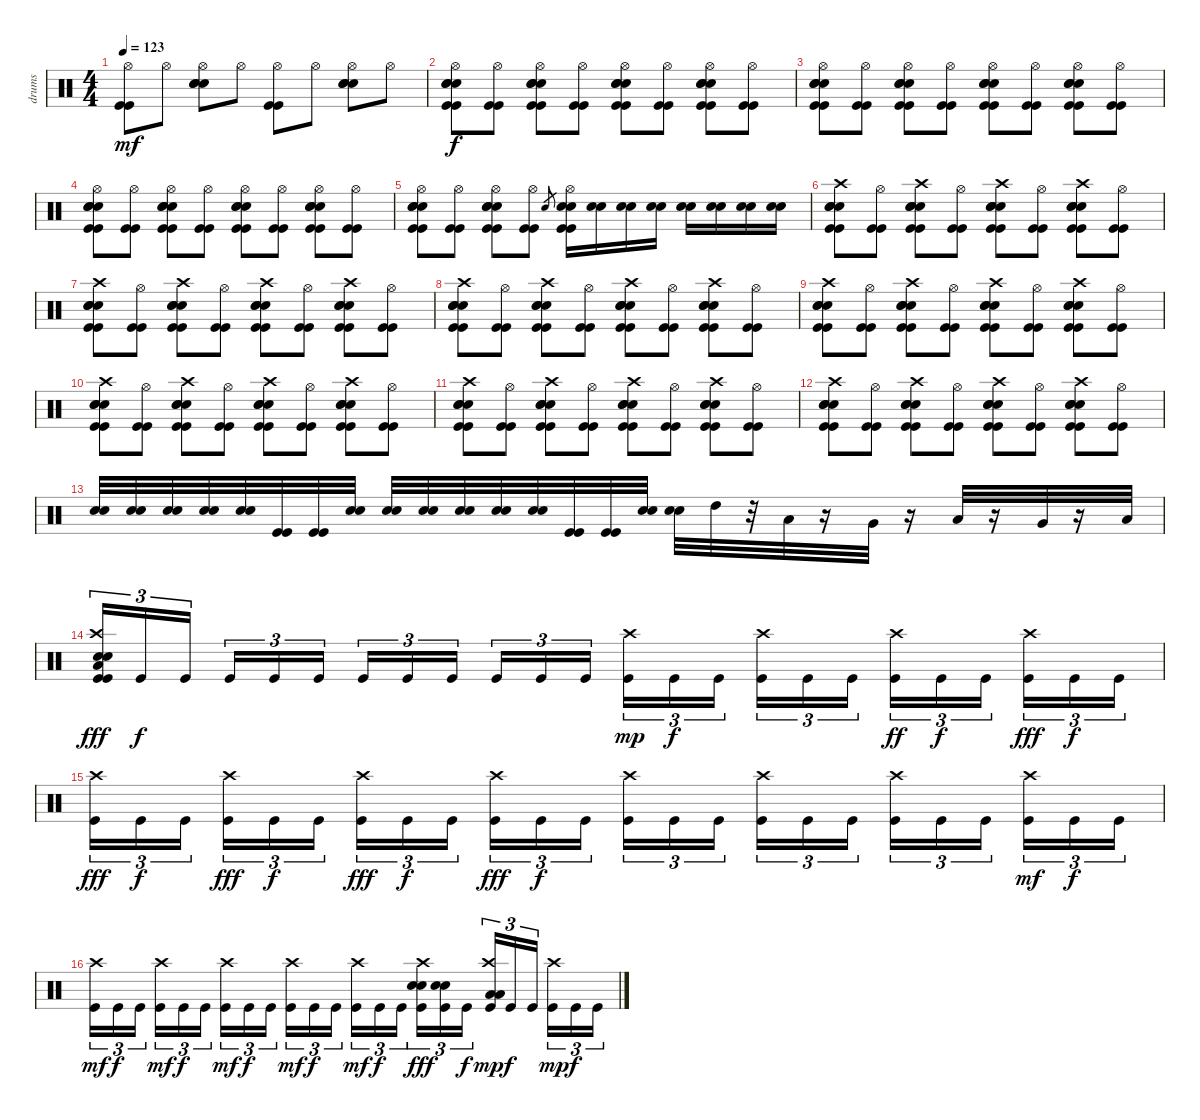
\track ("drums" "drums") {instrument percussion}
\staff {score}
\articulation defaults
\ts (4 4)
\tempo 123
\clef neutral
\ks c
("Hi-Hat (open)" "Kick (hit)" "Kick (hit)").8{dy mf} "Hi-Hat (open)".8 ("Hi-Hat (open)" "Snare (hit) 2" "Electric Snare (hit)" "Electric Snare (hit)").8 "Hi-Hat (open)".8 ("Hi-Hat (open)" "Kick (hit)" "Kick (hit)").8 "Hi-Hat (open)".8 ("Hi-Hat (open)" "Snare (hit) 2" "Electric Snare (hit)" "Electric Snare (hit)").8 "Hi-Hat (open)".8 |
("Hi-Hat (open)" "Snare (hit) 2" "Electric Snare (hit)" "Electric Snare (hit)" "Kick (hit)" "Kick (hit)").8{dy f} ("Hi-Hat (open)" "Kick (hit)" "Kick (hit)").8 ("Hi-Hat (open)" "Snare (hit) 2" "Electric Snare (hit)" "Electric Snare (hit)" "Kick (hit)" "Kick (hit)").8 ("Hi-Hat (open)" "Kick (hit)" "Kick (hit)").8 ("Hi-Hat (open)" "Snare (hit) 2" "Electric Snare (hit)" "Electric Snare (hit)" "Kick (hit)" "Kick (hit)").8 ("Hi-Hat (open)" "Kick (hit)" "Kick (hit)").8 ("Hi-Hat (open)" "Snare (hit) 2" "Electric Snare (hit)" "Electric Snare (hit)" "Kick (hit)" "Kick (hit)").8 ("Hi-Hat (open)" "Kick (hit)" "Kick (hit)").8 |
("Hi-Hat (open)" "Electric Snare (hit)" "Electric Snare (hit)" "Electric Snare (hit)" "Kick (hit)" "Kick (hit)").8 ("Hi-Hat (open)" "Kick (hit)" "Kick (hit)").8 ("Hi-Hat (open)" "Electric Snare (hit)" "Electric Snare (hit)" "Electric Snare (hit)" "Kick (hit)" "Kick (hit)").8 ("Hi-Hat (open)" "Kick (hit)" "Kick (hit)").8 ("Hi-Hat (open)" "Electric Snare (hit)" "Electric Snare (hit)" "Electric Snare (hit)" "Kick (hit)" "Kick (hit)").8 ("Hi-Hat (open)" "Kick (hit)" "Kick (hit)").8 ("Hi-Hat (open)" "Electric Snare (hit)" "Electric Snare (hit)" "Electric Snare (hit)" "Kick (hit)" "Kick (hit)").8 ("Hi-Hat (open)" "Kick (hit)" "Kick (hit)").8 |
("Hi-Hat (open)" "Electric Snare (hit)" "Electric Snare (hit)" "Electric Snare (hit)" "Kick (hit)" "Kick (hit)").8 ("Hi-Hat (open)" "Kick (hit)" "Kick (hit)").8 ("Hi-Hat (open)" "Electric Snare (hit)" "Electric Snare (hit)" "Electric Snare (hit)" "Kick (hit)" "Kick (hit)").8 ("Hi-Hat (open)" "Kick (hit)" "Kick (hit)").8 ("Hi-Hat (open)" "Electric Snare (hit)" "Electric Snare (hit)" "Electric Snare (hit)" "Kick (hit)" "Kick (hit)").8 ("Hi-Hat (open)" "Kick (hit)" "Kick (hit)").8 ("Hi-Hat (open)" "Electric Snare (hit)" "Electric Snare (hit)" "Electric Snare (hit)" "Kick (hit)" "Kick (hit)").8 ("Hi-Hat (open)" "Kick (hit)" "Kick (hit)").8 |
("Hi-Hat (open)" "Electric Snare (hit)" "Electric Snare (hit)" "Electric Snare (hit)" "Kick (hit)" "Kick (hit)").8 ("Hi-Hat (open)" "Kick (hit)" "Kick (hit)").8 ("Hi-Hat (open)" "Electric Snare (hit)" "Electric Snare (hit)" "Electric Snare (hit)" "Kick (hit)" "Kick (hit)").8 ("Hi-Hat (open)" "Kick (hit)" "Kick (hit)").8 "Snare (hit) 2".8{gr} ("Hi-Hat (open)" "Snare (hit) 2" "Snare (hit) 2" "Kick (hit)" "Kick (hit)").16 ("Snare (hit) 2" "Snare (hit) 2").16 ("Snare (hit) 2" "Snare (hit) 2").16 ("Snare (hit) 2" "Snare (hit) 2").16 ("Snare (hit) 2" "Snare (hit) 2").16 ("Snare (hit) 2" "Snare (hit) 2").16 ("Snare (hit) 2" "Snare (hit) 2").16 ("Snare (hit) 2" "Snare (hit) 2").16 |
("Crash high (hit)" "Snare (hit) 2" "Electric Snare (hit)" "Electric Snare (hit)" "Kick (hit)" "Kick (hit)").8 ("Hi-Hat (open)" "Kick (hit)" "Kick (hit)").8 ("Crash high (hit)" "Snare (hit) 2" "Electric Snare (hit)" "Electric Snare (hit)" "Kick (hit)" "Kick (hit)").8 ("Hi-Hat (open)" "Kick (hit)" "Kick (hit)").8 ("Crash high (hit)" "Snare (hit) 2" "Electric Snare (hit)" "Electric Snare (hit)" "Kick (hit)" "Kick (hit)").8 ("Hi-Hat (open)" "Kick (hit)" "Kick (hit)").8 ("Crash high (hit)" "Snare (hit) 2" "Electric Snare (hit)" "Electric Snare (hit)" "Kick (hit)" "Kick (hit)").8 ("Hi-Hat (open)" "Kick (hit)" "Kick (hit)").8 |
("Crash high (hit)" "Snare (hit) 2" "Electric Snare (hit)" "Electric Snare (hit)" "Kick (hit)" "Kick (hit)").8 ("Hi-Hat (open)" "Kick (hit)" "Kick (hit)").8 ("Crash high (hit)" "Snare (hit) 2" "Electric Snare (hit)" "Electric Snare (hit)" "Kick (hit)" "Kick (hit)").8 ("Hi-Hat (open)" "Kick (hit)" "Kick (hit)").8 ("Crash high (hit)" "Snare (hit) 2" "Electric Snare (hit)" "Electric Snare (hit)" "Kick (hit)" "Kick (hit)").8 ("Hi-Hat (open)" "Kick (hit)" "Kick (hit)").8 ("Crash high (hit)" "Snare (hit) 2" "Electric Snare (hit)" "Electric Snare (hit)" "Kick (hit)" "Kick (hit)").8 ("Hi-Hat (open)" "Kick (hit)" "Kick (hit)").8 |
("Crash high (hit)" "Snare (hit) 2" "Electric Snare (hit)" "Electric Snare (hit)" "Kick (hit)" "Kick (hit)").8 ("Hi-Hat (open)" "Kick (hit)" "Kick (hit)").8 ("Crash high (hit)" "Snare (hit) 2" "Electric Snare (hit)" "Electric Snare (hit)" "Kick (hit)" "Kick (hit)").8 ("Hi-Hat (open)" "Kick (hit)" "Kick (hit)").8 ("Crash high (hit)" "Snare (hit) 2" "Electric Snare (hit)" "Electric Snare (hit)" "Kick (hit)" "Kick (hit)").8 ("Hi-Hat (open)" "Kick (hit)" "Kick (hit)").8 ("Crash high (hit)" "Snare (hit) 2" "Electric Snare (hit)" "Electric Snare (hit)" "Kick (hit)" "Kick (hit)").8 ("Hi-Hat (open)" "Kick (hit)" "Kick (hit)").8 |
("Crash high (hit)" "Snare (hit) 2" "Electric Snare (hit)" "Electric Snare (hit)" "Kick (hit)" "Kick (hit)").8 ("Hi-Hat (open)" "Kick (hit)" "Kick (hit)").8 ("Crash high (hit)" "Snare (hit) 2" "Electric Snare (hit)" "Electric Snare (hit)" "Kick (hit)" "Kick (hit)").8 ("Hi-Hat (open)" "Kick (hit)" "Kick (hit)").8 ("Crash high (hit)" "Snare (hit) 2" "Electric Snare (hit)" "Electric Snare (hit)" "Kick (hit)" "Kick (hit)").8 ("Hi-Hat (open)" "Kick (hit)" "Kick (hit)").8 ("Crash high (hit)" "Snare (hit) 2" "Electric Snare (hit)" "Electric Snare (hit)" "Kick (hit)" "Kick (hit)").8 ("Hi-Hat (open)" "Kick (hit)" "Kick (hit)").8 |
("Crash high (hit)" "Snare (hit) 2" "Electric Snare (hit)" "Electric Snare (hit)" "Kick (hit)" "Kick (hit)").8 ("Hi-Hat (open)" "Kick (hit)" "Kick (hit)").8 ("Crash high (hit)" "Snare (hit) 2" "Electric Snare (hit)" "Electric Snare (hit)" "Kick (hit)" "Kick (hit)").8 ("Hi-Hat (open)" "Kick (hit)" "Kick (hit)").8 ("Crash high (hit)" "Snare (hit) 2" "Electric Snare (hit)" "Electric Snare (hit)" "Kick (hit)" "Kick (hit)").8 ("Hi-Hat (open)" "Kick (hit)" "Kick (hit)").8 ("Crash high (hit)" "Snare (hit) 2" "Electric Snare (hit)" "Electric Snare (hit)" "Kick (hit)" "Kick (hit)").8 ("Hi-Hat (open)" "Kick (hit)" "Kick (hit)").8 |
("Crash high (hit)" "Snare (hit) 2" "Electric Snare (hit)" "Electric Snare (hit)" "Kick (hit)" "Kick (hit)").8 ("Hi-Hat (open)" "Kick (hit)" "Kick (hit)").8 ("Crash high (hit)" "Snare (hit) 2" "Electric Snare (hit)" "Electric Snare (hit)" "Kick (hit)" "Kick (hit)").8 ("Hi-Hat (open)" "Kick (hit)" "Kick (hit)").8 ("Crash high (hit)" "Snare (hit) 2" "Electric Snare (hit)" "Electric Snare (hit)" "Kick (hit)" "Kick (hit)").8 ("Hi-Hat (open)" "Kick (hit)" "Kick (hit)").8 ("Crash high (hit)" "Snare (hit) 2" "Electric Snare (hit)" "Electric Snare (hit)" "Kick (hit)" "Kick (hit)").8 ("Hi-Hat (open)" "Kick (hit)" "Kick (hit)").8 |
("Crash high (hit)" "Snare (hit) 2" "Electric Snare (hit)" "Electric Snare (hit)" "Kick (hit)" "Kick (hit)").8 ("Hi-Hat (open)" "Kick (hit)" "Kick (hit)").8 ("Crash high (hit)" "Snare (hit) 2" "Electric Snare (hit)" "Electric Snare (hit)" "Kick (hit)" "Kick (hit)").8 ("Hi-Hat (open)" "Kick (hit)" "Kick (hit)").8 ("Crash high (hit)" "Snare (hit) 2" "Electric Snare (hit)" "Electric Snare (hit)" "Kick (hit)" "Kick (hit)").8 ("Hi-Hat (open)" "Kick (hit)" "Kick (hit)").8 ("Crash high (hit)" "Snare (hit) 2" "Electric Snare (hit)" "Electric Snare (hit)" "Kick (hit)" "Kick (hit)").8 ("Hi-Hat (open)" "Kick (hit)" "Kick (hit)").8 |
("Snare (hit) 2" "Snare (hit) 2").32 ("Snare (hit) 2" "Snare (hit) 2").32 ("Snare (hit) 2" "Snare (hit) 2").32 ("Snare (hit) 2" "Snare (hit) 2").32 ("Snare (hit) 2" "Snare (hit) 2").32 ("Kick (hit)" "Kick (hit)").32 ("Kick (hit)" "Kick (hit)").32 ("Snare (hit) 2" "Snare (hit) 2").32 ("Snare (hit) 2" "Snare (hit) 2").32 ("Snare (hit) 2" "Snare (hit) 2").32 ("Snare (hit) 2" "Snare (hit) 2").32 ("Snare (hit) 2" "Snare (hit) 2").32 ("Snare (hit) 2" "Snare (hit) 2").32 ("Kick (hit)" "Kick (hit)").32 ("Kick (hit)" "Kick (hit)").32 ("Snare (hit) 2" "Snare (hit) 2").32 ("Snare (hit) 2" "Snare (hit) 2").32 "High Tom (hit)".32 r.32 "Low Tom (hit)".32 r.16 "Very Low Tom (hit)".32 r.16 "Low Tom (hit)".32 r.16 "Very Low Tom (hit)".32 r.16 "Low Floor Tom (hit)".32 |
("Crash high (hit)" "Snare (hit) 2" "Snare (hit) 2" "Low Floor Tom (hit)" "Kick (hit)" "Kick (hit)").16{tu (3 2) dy fff} "Kick (hit)".16{tu (3 2) dy f} "Kick (hit)".16{tu (3 2)} "Kick (hit)".16{tu (3 2)} "Kick (hit)".16{tu (3 2)} "Kick (hit)".16{tu (3 2)} "Kick (hit)".16{tu (3 2)} "Kick (hit)".16{tu (3 2)} "Kick (hit)".16{tu (3 2)} "Kick (hit)".16{tu (3 2)} "Kick (hit)".16{tu (3 2)} "Kick (hit)".16{tu (3 2)} ("Crash high (hit)" "Kick (hit)").16{tu (3 2) dy mp} "Kick (hit)".16{tu (3 2) dy f} "Kick (hit)".16{tu (3 2)} ("Crash high (hit)" "Kick (hit)").16{tu (3 2)} "Kick (hit)".16{tu (3 2)} "Kick (hit)".16{tu (3 2)} ("Crash high (hit)" "Kick (hit)").16{tu (3 2) dy ff} "Kick (hit)".16{tu (3 2) dy f} "Kick (hit)".16{tu (3 2)} ("Crash high (hit)" "Kick (hit)").16{tu (3 2) dy fff} "Kick (hit)".16{tu (3 2) dy f} "Kick (hit)".16{tu (3 2)} |
("Crash high (hit)" "Kick (hit)").16{tu (3 2) dy fff} "Kick (hit)".16{tu (3 2) dy f} "Kick (hit)".16{tu (3 2)} ("Crash high (hit)" "Kick (hit)").16{tu (3 2) dy fff} "Kick (hit)".16{tu (3 2) dy f} "Kick (hit)".16{tu (3 2)} ("Crash high (hit)" "Kick (hit)").16{tu (3 2) dy fff} "Kick (hit)".16{tu (3 2) dy f} "Kick (hit)".16{tu (3 2)} ("Crash high (hit)" "Kick (hit)").16{tu (3 2) dy fff} "Kick (hit)".16{tu (3 2) dy f} "Kick (hit)".16{tu (3 2)} ("Crash high (hit)" "Kick (hit)").16{tu (3 2)} "Kick (hit)".16{tu (3 2)} "Kick (hit)".16{tu (3 2)} ("Crash high (hit)" "Kick (hit)").16{tu (3 2)} "Kick (hit)".16{tu (3 2)} "Kick (hit)".16{tu (3 2)} ("Crash high (hit)" "Kick (hit)").16{tu (3 2)} "Kick (hit)".16{tu (3 2)} "Kick (hit)".16{tu (3 2)} ("Crash high (hit)" "Kick (hit)").16{tu (3 2) dy mf} "Kick (hit)".16{tu (3 2) dy f} "Kick (hit)".16{tu (3 2)} |
("Crash high (hit)" "Kick (hit)").16{tu (3 2) dy mf} "Kick (hit)".16{tu (3 2) dy f} "Kick (hit)".16{tu (3 2)} ("Crash high (hit)" "Kick (hit)").16{tu (3 2) dy mf} "Kick (hit)".16{tu (3 2) dy f} "Kick (hit)".16{tu (3 2)} ("Crash high (hit)" "Kick (hit)").16{tu (3 2) dy mf} "Kick (hit)".16{tu (3 2) dy f} "Kick (hit)".16{tu (3 2)} ("Crash high (hit)" "Kick (hit)").16{tu (3 2) dy mf} "Kick (hit)".16{tu (3 2) dy f} "Kick (hit)".16{tu (3 2)} ("Crash high (hit)" "Kick (hit)").16{tu (3 2) dy mf} "Kick (hit)".16{tu (3 2) dy f} "Kick (hit)".16{tu (3 2)} ("Crash high (hit)" "Electric Snare (hit)" "Electric Snare (hit)" "Kick (hit)").16{tu (3 2) dy fff} ("Electric Snare (hit)" "Electric Snare (hit)" "Kick (hit)").16{tu (3 2)} "Kick (hit)".16{tu (3 2) dy f} ("Crash high (hit)" "Low Tom (hit)" "Low Tom (hit)" "Kick (hit)").16{tu (3 2) dy mp} "Kick (hit)".16{tu (3 2) dy f} "Kick (hit)".16{tu (3 2)} ("Crash high (hit)" "Kick (hit)").16{tu (3 2) dy mp} "Kick (hit)".16{tu (3 2) dy f} "Kick (hit)".16{tu (3 2)}
